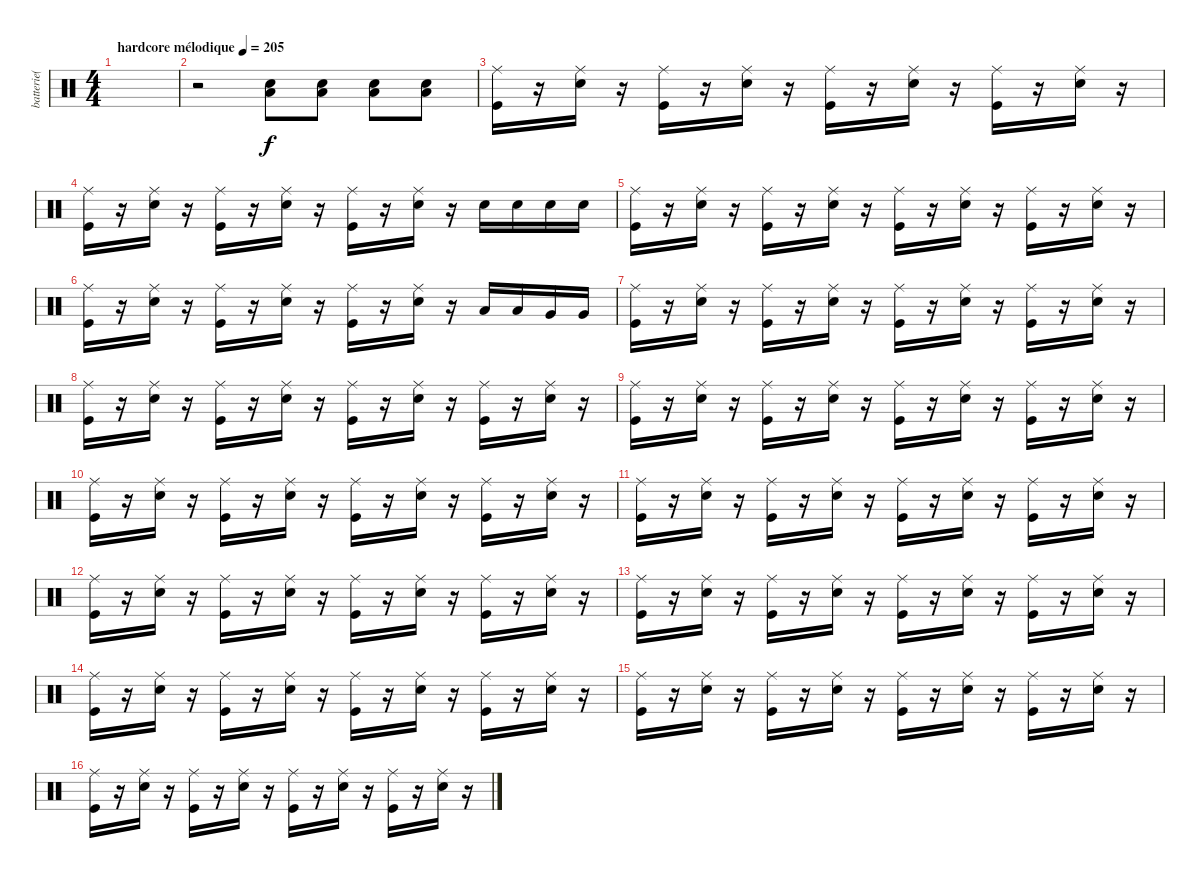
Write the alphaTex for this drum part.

\track ("batterie( Rob )" "batterie( ") {instrument percussion}
\staff {score}
\articulation defaults
\ts (4 4)
\tempo (205 "hardcore mélodique")
\clef neutral
\ks c
|
r.2 ("Low Floor Tom (hit)" "Snare (hit) 2").8 ("Low Floor Tom (hit)" "Snare (hit) 2").8 ("Low Floor Tom (hit)" "Snare (hit) 2").8 ("Low Floor Tom (hit)" "Snare (hit) 2").8 |
("Ride (middle)" "Kick (hit)").16 r.16 ("Ride (middle)" "Snare (hit) 2").16 r.16 ("Ride (middle)" "Kick (hit)").16 r.16 ("Ride (middle)" "Snare (hit) 2").16 r.16 ("Ride (middle)" "Kick (hit)").16 r.16 ("Ride (middle)" "Snare (hit) 2").16 r.16 ("Ride (middle)" "Kick (hit)").16 r.16 ("Ride (middle)" "Snare (hit) 2").16 r.16 |
("Ride (middle)" "Kick (hit)").16 r.16 ("Ride (middle)" "Snare (hit) 2").16 r.16 ("Ride (middle)" "Kick (hit)").16 r.16 ("Ride (middle)" "Snare (hit) 2").16 r.16 ("Ride (middle)" "Kick (hit)").16 r.16 ("Ride (middle)" "Snare (hit) 2").16 r.16 "Snare (hit) 2".16 "Snare (hit) 2".16 "Snare (hit) 2".16 "Snare (hit) 2".16 |
("Ride (middle)" "Kick (hit)").16 r.16 ("Ride (middle)" "Snare (hit) 2").16 r.16 ("Ride (middle)" "Kick (hit)").16 r.16 ("Ride (middle)" "Snare (hit) 2").16 r.16 ("Ride (middle)" "Kick (hit)").16 r.16 ("Ride (middle)" "Snare (hit) 2").16 r.16 ("Ride (middle)" "Kick (hit)").16 r.16 ("Ride (middle)" "Snare (hit) 2").16 r.16 |
("Ride (middle)" "Kick (hit)").16 r.16 ("Ride (middle)" "Snare (hit) 2").16 r.16 ("Ride (middle)" "Kick (hit)").16 r.16 ("Ride (middle)" "Snare (hit) 2").16 r.16 ("Ride (middle)" "Kick (hit)").16 r.16 ("Ride (middle)" "Snare (hit) 2").16 r.16 "Low Tom (hit)".16 "Low Tom (hit)".16 "Very Low Tom (hit)".16 "Very Low Tom (hit)".16 |
("Ride (middle)" "Kick (hit)").16 r.16 ("Ride (middle)" "Snare (hit) 2").16 r.16 ("Ride (middle)" "Kick (hit)").16 r.16 ("Ride (middle)" "Snare (hit) 2").16 r.16 ("Ride (middle)" "Kick (hit)").16 r.16 ("Ride (middle)" "Snare (hit) 2").16 r.16 ("Ride (middle)" "Kick (hit)").16 r.16 ("Ride (middle)" "Snare (hit) 2").16 r.16 |
("Ride (middle)" "Kick (hit)").16 r.16 ("Ride (middle)" "Snare (hit) 2").16 r.16 ("Ride (middle)" "Kick (hit)").16 r.16 ("Ride (middle)" "Snare (hit) 2").16 r.16 ("Ride (middle)" "Kick (hit)").16 r.16 ("Ride (middle)" "Snare (hit) 2").16 r.16 ("Ride (middle)" "Kick (hit)").16 r.16 ("Ride (middle)" "Snare (hit) 2").16 r.16 |
("Ride (middle)" "Kick (hit)").16 r.16 ("Ride (middle)" "Snare (hit) 2").16 r.16 ("Ride (middle)" "Kick (hit)").16 r.16 ("Ride (middle)" "Snare (hit) 2").16 r.16 ("Ride (middle)" "Kick (hit)").16 r.16 ("Ride (middle)" "Snare (hit) 2").16 r.16 ("Ride (middle)" "Kick (hit)").16 r.16 ("Ride (middle)" "Snare (hit) 2").16 r.16 |
("Ride (middle)" "Kick (hit)").16 r.16 ("Ride (middle)" "Snare (hit) 2").16 r.16 ("Ride (middle)" "Kick (hit)").16 r.16 ("Ride (middle)" "Snare (hit) 2").16 r.16 ("Ride (middle)" "Kick (hit)").16 r.16 ("Ride (middle)" "Snare (hit) 2").16 r.16 ("Ride (middle)" "Kick (hit)").16 r.16 ("Ride (middle)" "Snare (hit) 2").16 r.16 |
("Ride (middle)" "Kick (hit)").16 r.16 ("Ride (middle)" "Snare (hit) 2").16 r.16 ("Ride (middle)" "Kick (hit)").16 r.16 ("Ride (middle)" "Snare (hit) 2").16 r.16 ("Ride (middle)" "Kick (hit)").16 r.16 ("Ride (middle)" "Snare (hit) 2").16 r.16 ("Ride (middle)" "Kick (hit)").16 r.16 ("Ride (middle)" "Snare (hit) 2").16 r.16 |
("Ride (middle)" "Kick (hit)").16 r.16 ("Ride (middle)" "Snare (hit) 2").16 r.16 ("Ride (middle)" "Kick (hit)").16 r.16 ("Ride (middle)" "Snare (hit) 2").16 r.16 ("Ride (middle)" "Kick (hit)").16 r.16 ("Ride (middle)" "Snare (hit) 2").16 r.16 ("Ride (middle)" "Kick (hit)").16 r.16 ("Ride (middle)" "Snare (hit) 2").16 r.16 |
("Ride (middle)" "Kick (hit)").16 r.16 ("Ride (middle)" "Snare (hit) 2").16 r.16 ("Ride (middle)" "Kick (hit)").16 r.16 ("Ride (middle)" "Snare (hit) 2").16 r.16 ("Ride (middle)" "Kick (hit)").16 r.16 ("Ride (middle)" "Snare (hit) 2").16 r.16 ("Ride (middle)" "Kick (hit)").16 r.16 ("Ride (middle)" "Snare (hit) 2").16 r.16 |
("Ride (middle)" "Kick (hit)").16 r.16 ("Ride (middle)" "Snare (hit) 2").16 r.16 ("Ride (middle)" "Kick (hit)").16 r.16 ("Ride (middle)" "Snare (hit) 2").16 r.16 ("Ride (middle)" "Kick (hit)").16 r.16 ("Ride (middle)" "Snare (hit) 2").16 r.16 ("Ride (middle)" "Kick (hit)").16 r.16 ("Ride (middle)" "Snare (hit) 2").16 r.16 |
("Ride (middle)" "Kick (hit)").16 r.16 ("Ride (middle)" "Snare (hit) 2").16 r.16 ("Ride (middle)" "Kick (hit)").16 r.16 ("Ride (middle)" "Snare (hit) 2").16 r.16 ("Ride (middle)" "Kick (hit)").16 r.16 ("Ride (middle)" "Snare (hit) 2").16 r.16 ("Ride (middle)" "Kick (hit)").16 r.16 ("Ride (middle)" "Snare (hit) 2").16 r.16 |
("Ride (middle)" "Kick (hit)").16 r.16 ("Ride (middle)" "Snare (hit) 2").16 r.16 ("Ride (middle)" "Kick (hit)").16 r.16 ("Ride (middle)" "Snare (hit) 2").16 r.16 ("Ride (middle)" "Kick (hit)").16 r.16 ("Ride (middle)" "Snare (hit) 2").16 r.16 ("Ride (middle)" "Kick (hit)").16 r.16 ("Ride (middle)" "Snare (hit) 2").16 r.16
